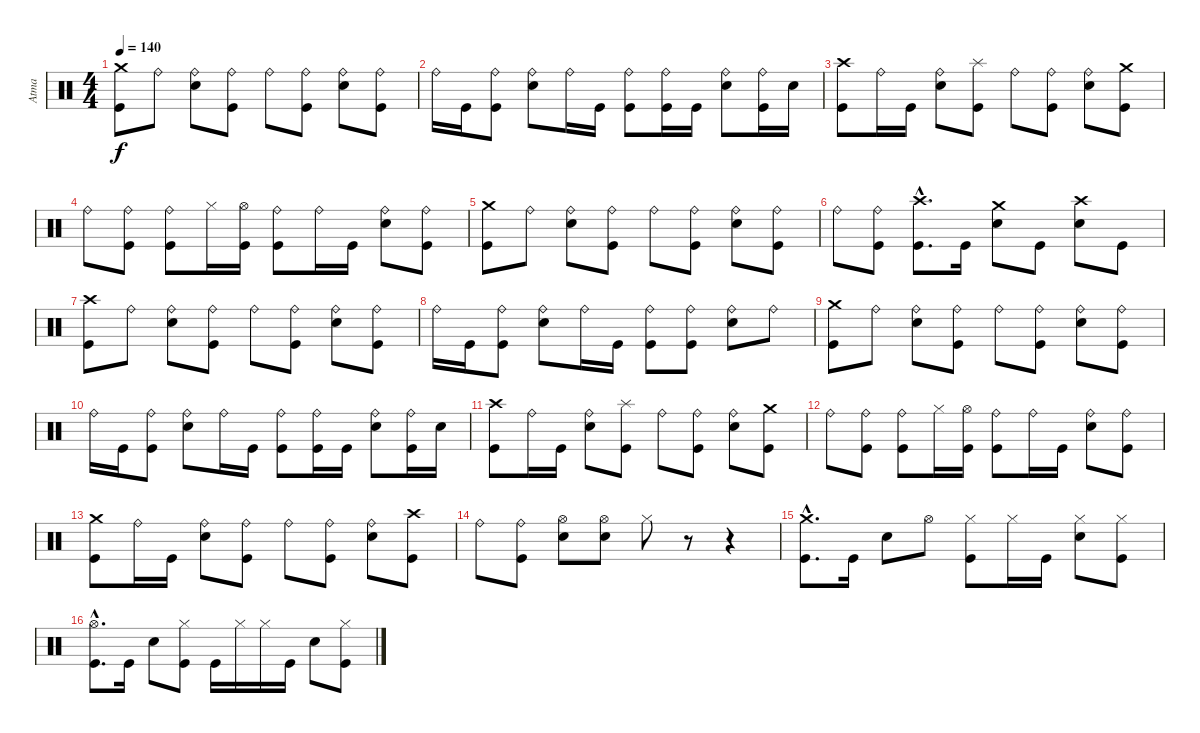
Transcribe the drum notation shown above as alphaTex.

\track ("Atma" "Atma") {instrument percussion}
\staff {score}
\articulation defaults
\ts (4 4)
\tempo 140
\clef neutral
\ks c
("Kick (hit)" "Crash medium (hit)").8{dy f} "Ride (bell)".8 ("Snare (hit) 2" "Ride (bell)").8 ("Kick (hit)" "Ride (bell)").8 "Ride (bell)".8 ("Kick (hit)" "Ride (bell)").8 ("Snare (hit) 2" "Ride (bell)").8 ("Kick (hit)" "Ride (bell)").8 |
"Ride (bell)".16 "Kick (hit)".16 ("Kick (hit)" "Ride (bell)").8 ("Snare (hit) 2" "Ride (bell)").8 "Ride (bell)".16 "Kick (hit)".16 ("Kick (hit)" "Ride (bell)").8 ("Kick (hit)" "Ride (bell)").16 "Kick (hit)".16 ("Snare (hit) 2" "Ride (bell)").8 ("Kick (hit)" "Ride (bell)").16 "Snare (hit) 2".16 |
("Kick (hit)" "Crash high (hit)").8 "Ride (bell)".16 "Kick (hit)".16 ("Snare (hit) 2" "Ride (bell)").8 ("Kick (hit)" "Splash (hit)").8 "Ride (bell)".8 ("Kick (hit)" "Ride (bell)").8 ("Snare (hit) 2" "Ride (bell)").8 ("Kick (hit)" "Crash medium (hit)").8 |
"Ride (bell)".8 ("Kick (hit)" "Ride (bell)").8 ("Kick (hit)" "Ride (bell)").8 "Hi-Hat (closed)".16 ("Kick (hit)" "Hi-Hat (open)").16 ("Kick (hit)" "Ride (bell)").8 "Ride (bell)".16 "Kick (hit)".16 ("Snare (hit) 2" "Ride (bell)").8 ("Kick (hit)" "Ride (bell)").8 |
("Kick (hit)" "Crash medium (hit)").8 "Ride (bell)".8 ("Snare (hit) 2" "Ride (bell)").8 ("Kick (hit)" "Ride (bell)").8 "Ride (bell)".8 ("Kick (hit)" "Ride (bell)").8 ("Snare (hit) 2" "Ride (bell)").8 ("Kick (hit)" "Ride (bell)").8 |
"Ride (bell)".8 ("Kick (hit)" "Ride (bell)").8 ("Kick (hit)"{hac} "Crash high (hit)"{hac}).8{d} "Kick (hit)".16 ("Snare (hit) 2" "Crash medium (hit)").8 "Kick (hit)".8 ("Snare (hit) 2" "Crash high (hit)").8 "Kick (hit)".8 |
("Kick (hit)" "Crash high (hit)").8 "Ride (bell)".8 ("Snare (hit) 2" "Ride (bell)").8 ("Kick (hit)" "Ride (bell)").8 "Ride (bell)".8 ("Kick (hit)" "Ride (bell)").8 ("Snare (hit) 2" "Ride (bell)").8 ("Kick (hit)" "Ride (bell)").8 |
"Ride (bell)".16 "Kick (hit)".16 ("Kick (hit)" "Ride (bell)").8 ("Snare (hit) 2" "Ride (bell)").8 "Ride (bell)".16 "Kick (hit)".16 ("Kick (hit)" "Ride (bell)").8 ("Kick (hit)" "Ride (bell)").8 ("Snare (hit) 2" "Ride (bell)").8 "Ride (bell)".8 |
("Kick (hit)" "Crash medium (hit)").8 "Ride (bell)".8 ("Snare (hit) 2" "Ride (bell)").8 ("Kick (hit)" "Ride (bell)").8 "Ride (bell)".8 ("Kick (hit)" "Ride (bell)").8 ("Snare (hit) 2" "Ride (bell)").8 ("Kick (hit)" "Ride (bell)").8 |
"Ride (bell)".16 "Kick (hit)".16 ("Kick (hit)" "Ride (bell)").8 ("Snare (hit) 2" "Ride (bell)").8 "Ride (bell)".16 "Kick (hit)".16 ("Kick (hit)" "Ride (bell)").8 ("Kick (hit)" "Ride (bell)").16 "Kick (hit)".16 ("Snare (hit) 2" "Ride (bell)").8 ("Kick (hit)" "Ride (bell)").16 "Snare (hit) 2".16 |
("Kick (hit)" "Crash high (hit)").8 "Ride (bell)".16 "Kick (hit)".16 ("Snare (hit) 2" "Ride (bell)").8 ("Kick (hit)" "Splash (hit)").8 "Ride (bell)".8 ("Kick (hit)" "Ride (bell)").8 ("Snare (hit) 2" "Ride (bell)").8 ("Kick (hit)" "Crash medium (hit)").8 |
"Ride (bell)".8 ("Kick (hit)" "Ride (bell)").8 ("Kick (hit)" "Ride (bell)").8 "Hi-Hat (closed)".16 ("Kick (hit)" "Hi-Hat (open)").16 ("Kick (hit)" "Ride (bell)").8 "Ride (bell)".16 "Kick (hit)".16 ("Snare (hit) 2" "Ride (bell)").8 ("Kick (hit)" "Ride (bell)").8 |
("Kick (hit)" "Crash medium (hit)").8 "Ride (bell)".16 "Kick (hit)".16 ("Snare (hit) 2" "Ride (bell)").8 ("Kick (hit)" "Ride (bell)").8 "Ride (bell)".8 ("Kick (hit)" "Ride (bell)").8 ("Snare (hit) 2" "Ride (bell)").8 ("Kick (hit)" "Crash high (hit)").8 |
"Ride (bell)".8 ("Kick (hit)" "Ride (bell)").8 ("Snare (hit) 2" "Hi-Hat (open)").8 ("Snare (hit) 2" "Hi-Hat (open)").8 "Hi-Hat (closed)".8 r.8 r.4 |
("Kick (hit)"{hac} "Crash medium (hit)"{hac}).8{d} "Kick (hit)".16 "Snare (hit) 2".8 "Hi-Hat (open)".8 ("Kick (hit)" "Hi-Hat (closed)").8 "Hi-Hat (closed)".16 "Kick (hit)".16 ("Snare (hit) 2" "Hi-Hat (closed)").8 ("Kick (hit)" "Hi-Hat (closed)").8 |
("Kick (hit)"{hac} "Hi-Hat (open)"{hac}).8{d} "Kick (hit)".16 "Snare (hit) 2".8 ("Kick (hit)" "Hi-Hat (closed)").8 "Kick (hit)".16 "Hi-Hat (closed)".16 "Hi-Hat (closed)".16 "Kick (hit)".16 "Snare (hit) 2".8 ("Kick (hit)" "Hi-Hat (closed)").8
